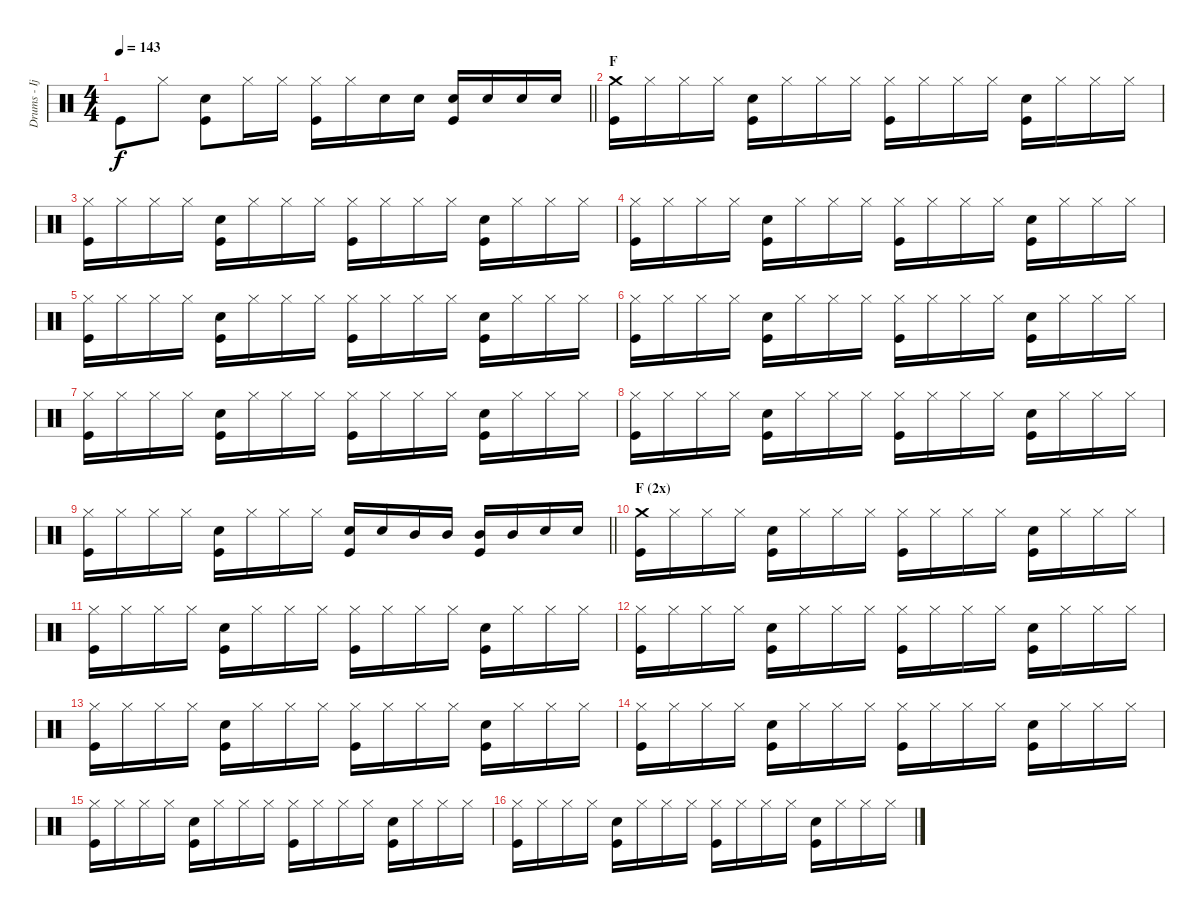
\track ("Drums - Ijichi" "Drums - Ij") {instrument percussion}
\staff {score}
\articulation defaults
\ts (4 4)
\tempo 143
\clef neutral
\barLineRight lightlight
\ks c "Kick (hit)".8{dy f} "Hi-Hat (closed)".8
("Electric Snare (hit)" "Kick (hit)").8 "Hi-Hat (closed)".16 "Hi-Hat (closed)".16 ("Hi-Hat (closed)" "Kick (hit)").16 "Hi-Hat (closed)".16 "Electric Snare (hit)".16 "Electric Snare (hit)".16 ("Electric Snare (hit)" "Kick (hit)").16 "Electric Snare (hit)".16 "Electric Snare (hit)".16 "Electric Snare (hit)".16 |
\section ("" "F")
("Crash medium (hit)" "Kick (hit)").16 "Hi-Hat (closed)".16 "Hi-Hat (closed)".16 "Hi-Hat (closed)".16 ("Electric Snare (hit)" "Kick (hit)").16 "Hi-Hat (closed)".16 "Hi-Hat (closed)".16 "Hi-Hat (closed)".16 ("Hi-Hat (closed)" "Kick (hit)").16 "Hi-Hat (closed)".16 "Hi-Hat (closed)".16 "Hi-Hat (closed)".16 ("Electric Snare (hit)" "Kick (hit)").16 "Hi-Hat (closed)".16 "Hi-Hat (closed)".16 "Hi-Hat (closed)".16 |
("Hi-Hat (closed)" "Kick (hit)").16 "Hi-Hat (closed)".16 "Hi-Hat (closed)".16 "Hi-Hat (closed)".16 ("Electric Snare (hit)" "Kick (hit)").16 "Hi-Hat (closed)".16 "Hi-Hat (closed)".16 "Hi-Hat (closed)".16 ("Hi-Hat (closed)" "Kick (hit)").16 "Hi-Hat (closed)".16 "Hi-Hat (closed)".16 "Hi-Hat (closed)".16 ("Electric Snare (hit)" "Kick (hit)").16 "Hi-Hat (closed)".16 "Hi-Hat (closed)".16 "Hi-Hat (closed)".16 |
("Hi-Hat (closed)" "Kick (hit)").16 "Hi-Hat (closed)".16 "Hi-Hat (closed)".16 "Hi-Hat (closed)".16 ("Electric Snare (hit)" "Kick (hit)").16 "Hi-Hat (closed)".16 "Hi-Hat (closed)".16 "Hi-Hat (closed)".16 ("Hi-Hat (closed)" "Kick (hit)").16 "Hi-Hat (closed)".16 "Hi-Hat (closed)".16 "Hi-Hat (closed)".16 ("Electric Snare (hit)" "Kick (hit)").16 "Hi-Hat (closed)".16 "Hi-Hat (closed)".16 "Hi-Hat (closed)".16 |
("Hi-Hat (closed)" "Kick (hit)").16 "Hi-Hat (closed)".16 "Hi-Hat (closed)".16 "Hi-Hat (closed)".16 ("Electric Snare (hit)" "Kick (hit)").16 "Hi-Hat (closed)".16 "Hi-Hat (closed)".16 "Hi-Hat (closed)".16 ("Hi-Hat (closed)" "Kick (hit)").16 "Hi-Hat (closed)".16 "Hi-Hat (closed)".16 "Hi-Hat (closed)".16 ("Electric Snare (hit)" "Kick (hit)").16 "Hi-Hat (closed)".16 "Hi-Hat (closed)".16 "Hi-Hat (closed)".16 |
("Hi-Hat (closed)" "Kick (hit)").16 "Hi-Hat (closed)".16 "Hi-Hat (closed)".16 "Hi-Hat (closed)".16 ("Electric Snare (hit)" "Kick (hit)").16 "Hi-Hat (closed)".16 "Hi-Hat (closed)".16 "Hi-Hat (closed)".16 ("Hi-Hat (closed)" "Kick (hit)").16 "Hi-Hat (closed)".16 "Hi-Hat (closed)".16 "Hi-Hat (closed)".16 ("Electric Snare (hit)" "Kick (hit)").16 "Hi-Hat (closed)".16 "Hi-Hat (closed)".16 "Hi-Hat (closed)".16 |
("Hi-Hat (closed)" "Kick (hit)").16 "Hi-Hat (closed)".16 "Hi-Hat (closed)".16 "Hi-Hat (closed)".16 ("Electric Snare (hit)" "Kick (hit)").16 "Hi-Hat (closed)".16 "Hi-Hat (closed)".16 "Hi-Hat (closed)".16 ("Hi-Hat (closed)" "Kick (hit)").16 "Hi-Hat (closed)".16 "Hi-Hat (closed)".16 "Hi-Hat (closed)".16 ("Electric Snare (hit)" "Kick (hit)").16 "Hi-Hat (closed)".16 "Hi-Hat (closed)".16 "Hi-Hat (closed)".16 |
("Hi-Hat (closed)" "Kick (hit)").16 "Hi-Hat (closed)".16 "Hi-Hat (closed)".16 "Hi-Hat (closed)".16 ("Electric Snare (hit)" "Kick (hit)").16 "Hi-Hat (closed)".16 "Hi-Hat (closed)".16 "Hi-Hat (closed)".16 ("Hi-Hat (closed)" "Kick (hit)").16 "Hi-Hat (closed)".16 "Hi-Hat (closed)".16 "Hi-Hat (closed)".16 ("Electric Snare (hit)" "Kick (hit)").16 "Hi-Hat (closed)".16 "Hi-Hat (closed)".16 "Hi-Hat (closed)".16 |
\barLineRight lightlight
("Hi-Hat (closed)" "Kick (hit)").16 "Hi-Hat (closed)".16 "Hi-Hat (closed)".16 "Hi-Hat (closed)".16 ("Electric Snare (hit)" "Kick (hit)").16 "Hi-Hat (closed)".16 "Hi-Hat (closed)".16 "Hi-Hat (closed)".16 ("Electric Snare (hit)" "Kick (hit)").16 "Electric Snare (hit)".16 "Mid Tom (hit)".16 "Mid Tom (hit)".16 ("Mid Tom (hit)" "Kick (hit)").16 "Mid Tom (hit)".16 "Electric Snare (hit)".16 "Electric Snare (hit)".16 |
\section ("" "F (2x)")
("Crash medium (hit)" "Kick (hit)").16 "Hi-Hat (closed)".16 "Hi-Hat (closed)".16 "Hi-Hat (closed)".16 ("Electric Snare (hit)" "Kick (hit)").16 "Hi-Hat (closed)".16 "Hi-Hat (closed)".16 "Hi-Hat (closed)".16 ("Hi-Hat (closed)" "Kick (hit)").16 "Hi-Hat (closed)".16 "Hi-Hat (closed)".16 "Hi-Hat (closed)".16 ("Electric Snare (hit)" "Kick (hit)").16 "Hi-Hat (closed)".16 "Hi-Hat (closed)".16 "Hi-Hat (closed)".16 |
("Hi-Hat (closed)" "Kick (hit)").16 "Hi-Hat (closed)".16 "Hi-Hat (closed)".16 "Hi-Hat (closed)".16 ("Electric Snare (hit)" "Kick (hit)").16 "Hi-Hat (closed)".16 "Hi-Hat (closed)".16 "Hi-Hat (closed)".16 ("Hi-Hat (closed)" "Kick (hit)").16 "Hi-Hat (closed)".16 "Hi-Hat (closed)".16 "Hi-Hat (closed)".16 ("Electric Snare (hit)" "Kick (hit)").16 "Hi-Hat (closed)".16 "Hi-Hat (closed)".16 "Hi-Hat (closed)".16 |
("Hi-Hat (closed)" "Kick (hit)").16 "Hi-Hat (closed)".16 "Hi-Hat (closed)".16 "Hi-Hat (closed)".16 ("Electric Snare (hit)" "Kick (hit)").16 "Hi-Hat (closed)".16 "Hi-Hat (closed)".16 "Hi-Hat (closed)".16 ("Hi-Hat (closed)" "Kick (hit)").16 "Hi-Hat (closed)".16 "Hi-Hat (closed)".16 "Hi-Hat (closed)".16 ("Electric Snare (hit)" "Kick (hit)").16 "Hi-Hat (closed)".16 "Hi-Hat (closed)".16 "Hi-Hat (closed)".16 |
("Hi-Hat (closed)" "Kick (hit)").16 "Hi-Hat (closed)".16 "Hi-Hat (closed)".16 "Hi-Hat (closed)".16 ("Electric Snare (hit)" "Kick (hit)").16 "Hi-Hat (closed)".16 "Hi-Hat (closed)".16 "Hi-Hat (closed)".16 ("Hi-Hat (closed)" "Kick (hit)").16 "Hi-Hat (closed)".16 "Hi-Hat (closed)".16 "Hi-Hat (closed)".16 ("Electric Snare (hit)" "Kick (hit)").16 "Hi-Hat (closed)".16 "Hi-Hat (closed)".16 "Hi-Hat (closed)".16 |
("Hi-Hat (closed)" "Kick (hit)").16 "Hi-Hat (closed)".16 "Hi-Hat (closed)".16 "Hi-Hat (closed)".16 ("Electric Snare (hit)" "Kick (hit)").16 "Hi-Hat (closed)".16 "Hi-Hat (closed)".16 "Hi-Hat (closed)".16 ("Hi-Hat (closed)" "Kick (hit)").16 "Hi-Hat (closed)".16 "Hi-Hat (closed)".16 "Hi-Hat (closed)".16 ("Electric Snare (hit)" "Kick (hit)").16 "Hi-Hat (closed)".16 "Hi-Hat (closed)".16 "Hi-Hat (closed)".16 |
("Hi-Hat (closed)" "Kick (hit)").16 "Hi-Hat (closed)".16 "Hi-Hat (closed)".16 "Hi-Hat (closed)".16 ("Electric Snare (hit)" "Kick (hit)").16 "Hi-Hat (closed)".16 "Hi-Hat (closed)".16 "Hi-Hat (closed)".16 ("Hi-Hat (closed)" "Kick (hit)").16 "Hi-Hat (closed)".16 "Hi-Hat (closed)".16 "Hi-Hat (closed)".16 ("Electric Snare (hit)" "Kick (hit)").16 "Hi-Hat (closed)".16 "Hi-Hat (closed)".16 "Hi-Hat (closed)".16 |
("Hi-Hat (closed)" "Kick (hit)").16 "Hi-Hat (closed)".16 "Hi-Hat (closed)".16 "Hi-Hat (closed)".16 ("Electric Snare (hit)" "Kick (hit)").16 "Hi-Hat (closed)".16 "Hi-Hat (closed)".16 "Hi-Hat (closed)".16 ("Hi-Hat (closed)" "Kick (hit)").16 "Hi-Hat (closed)".16 "Hi-Hat (closed)".16 "Hi-Hat (closed)".16 ("Electric Snare (hit)" "Kick (hit)").16 "Hi-Hat (closed)".16 "Hi-Hat (closed)".16 "Hi-Hat (closed)".16
